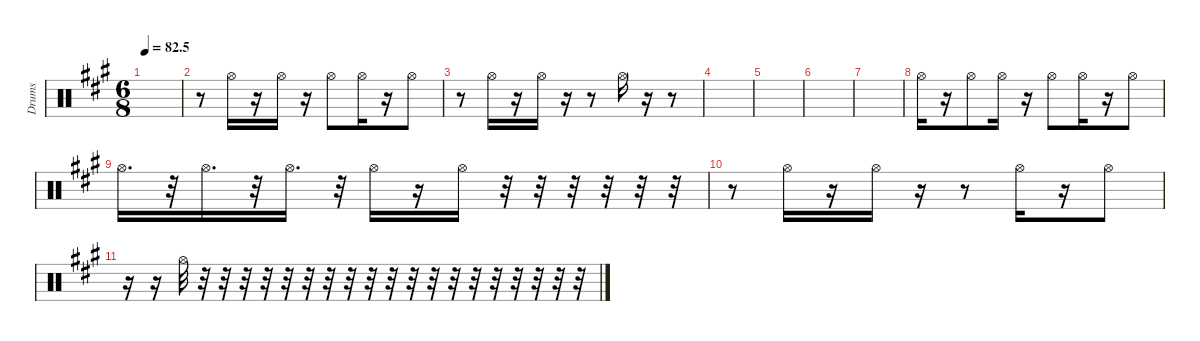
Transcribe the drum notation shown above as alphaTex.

\defaultSystemsLayout 4
\hideDynamics
\bracketExtendMode nobrackets
\otherSystemsTrackNameOrientation horizontal
\track ("Hihat" "Drums") {instrument percussion}
\staff {score}
\articulation defaults
\ts (6 8)
\tempo
82.5
\accidentals auto
\clef neutral
\ottava regular
\simile none
\scale
0.333333
\ks a
|
\scale
0.333333 r.8 "Hi-Hat (open)"{acc forcenatural}.16 r.16 "Hi-Hat (open)"{acc forcenatural}.16 r.16 "Hi-Hat (open)"{acc forcenatural}.8 "Hi-Hat (open)"{acc forcenatural}.16 r.16 "Hi-Hat (open)"{acc forcenatural}.8 |
\scale
0.333333 r.8 "Hi-Hat (open)"{acc forcenatural}.16 r.16 "Hi-Hat (open)"{acc forcenatural}.16 r.16 r.8 "Hi-Hat (open)"{acc forcenatural}.16 r.16 r.8 |
\scale
0.333333 |
\scale
0.333333 |
\scale
0.333333 |
\scale
0.333333 |
\scale
0.333333 "Hi-Hat (open)"{acc forcenatural}.16 r.16 "Hi-Hat (open)"{acc forcenatural}.8 "Hi-Hat (open)"{acc forcenatural}.16 r.16 "Hi-Hat (open)"{acc forcenatural}.8 "Hi-Hat (open)"{acc forcenatural}.16 r.16 "Hi-Hat (open)"{acc forcenatural}.8 |
\scale
0.333333 "Hi-Hat (open)"{acc forcenatural}.16{d} r.32 "Hi-Hat (open)"{acc forcenatural}.16{d} r.32 "Hi-Hat (open)"{acc forcenatural}.16{d} r.32 "Hi-Hat (open)"{acc forcenatural}.16 r.16 "Hi-Hat (open)"{acc forcenatural}.16 r.32 r.32 r.32 r.32 r.32 r.32 |
\scale
0.333333 r.8 "Hi-Hat (open)"{acc forcenatural}.16 r.16 "Hi-Hat (open)"{acc forcenatural}.16 r.16 r.8 "Hi-Hat (open)"{acc forcenatural}.16 r.16 "Hi-Hat (open)"{acc forcenatural}.8 |
\scale
0.333333 r.16 r.16 "Hi-Hat (open)"{acc forcenatural}.32 r.32 r.32 r.32 r.32 r.32 r.32 r.32 r.32 r.32 r.32 r.32 r.32 r.32 r.32 r.32 r.32 r.32 r.32 r.32 |
\scale
0.333333 |
\scale
0.333333 |
\scale
0.333333 |
\scale
0.333333 |
\scale
0.333333
